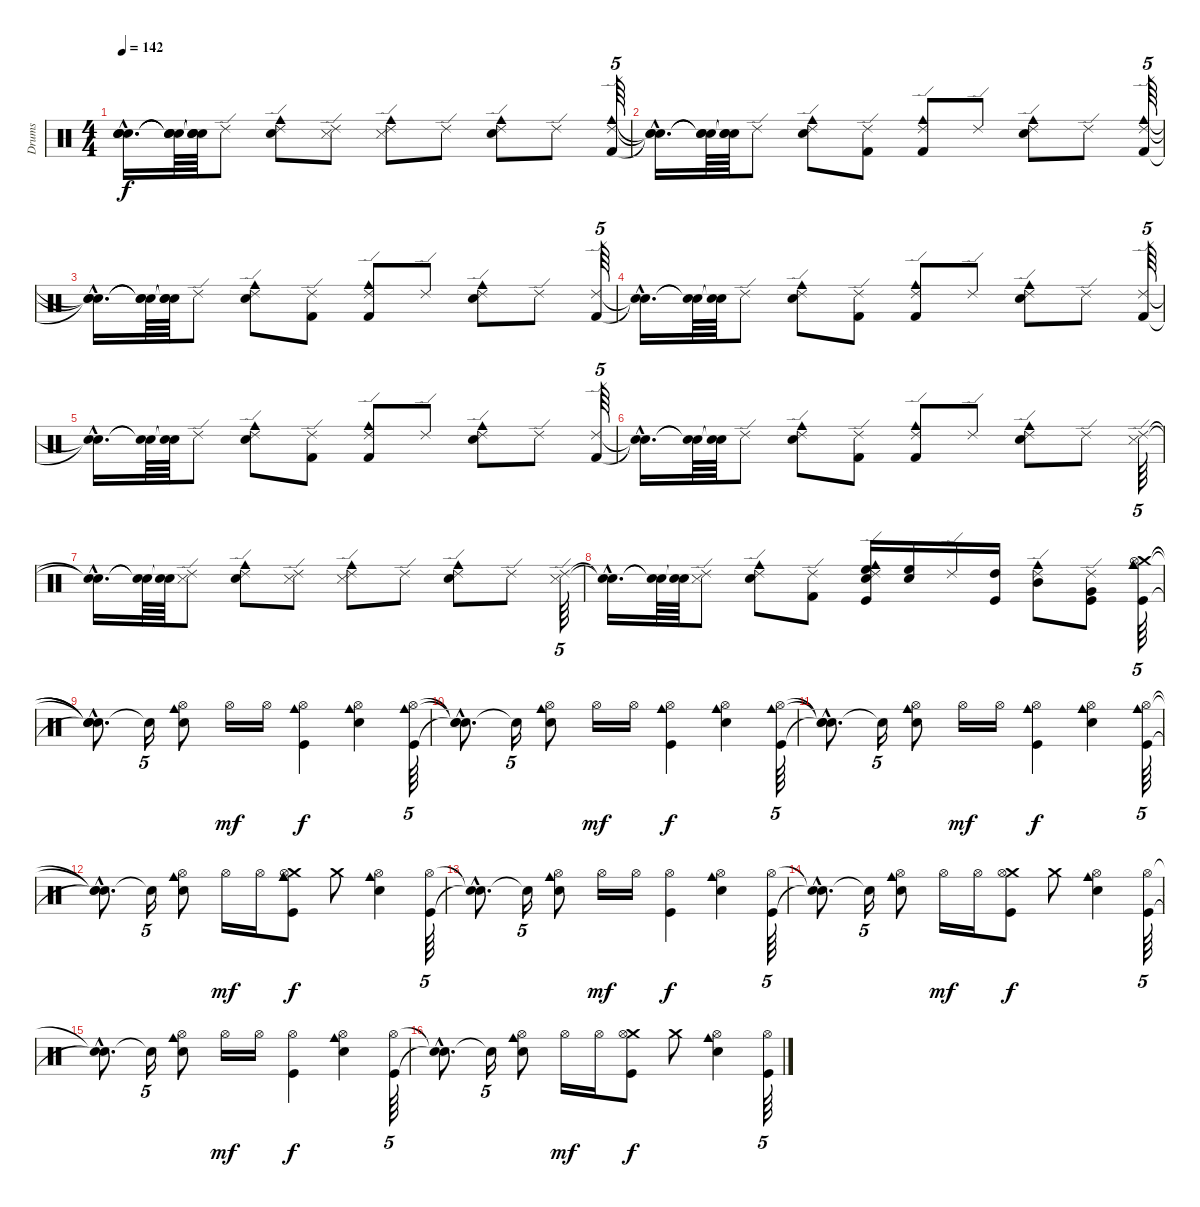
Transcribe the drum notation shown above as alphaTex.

\track ("Drums" "Drums") {instrument percussion}
\staff {score}
\articulation defaults
\ts (4 4)
\tempo 142
\clef neutral
\ks c
("Snare (hit)"{hac t} "Snare (hit)"{hac t} "Snare (hit)"{hac t} "Snare (hit)"{hac t}).16{d dy f} ("Snare (hit)"{t} "Snare (hit)"{t} "Snare (hit)"{t} "Snare (hit)"{t}).64 ("Snare (hit)"{t} "Snare (hit)"{t} "Snare (hit)"{t} "Snare (hit)"{t}).64 "Ride (edge) 2".8 ("Cowbell medium (hit)" "Ride (edge) 2" "Snare (hit) 2").8 ("Ride (edge) 2" "Metronome (hit)").8 ("Cowbell medium (hit)" "Ride (edge) 2" "Metronome (hit)").8 "Ride (edge) 2".8 ("Cowbell medium (hit)" "Ride (edge) 2" "Snare (hit) 2").8 "Ride (edge) 2".8 ("Cowbell medium (hit)" "Ride (edge) 2" "Kick (hit) 2").64{tu (5 4)} |
("Snare (hit)"{hac t} "Snare (hit)"{hac t} "Snare (hit)"{hac t}).16{d} ("Snare (hit)"{t} "Snare (hit)"{t} "Snare (hit)"{t}).64 ("Snare (hit)"{t} "Snare (hit)"{t} "Snare (hit)"{t}).64 "Ride (edge) 2".8 ("Cowbell medium (hit)" "Ride (edge) 2" "Snare (hit) 2").8 ("Ride (edge) 2" "Kick (hit) 2").8 ("Cowbell medium (hit)" "Ride (edge) 2" "Kick (hit) 2").8 "Ride (edge) 2".8 ("Cowbell medium (hit)" "Ride (edge) 2" "Snare (hit) 2").8 "Ride (edge) 2".8 ("Cowbell medium (hit)" "Ride (edge) 2" "Kick (hit) 2").64{tu (5 4)} |
("Snare (hit)"{hac t} "Snare (hit)"{hac t} "Snare (hit)"{hac t}).16{d} ("Snare (hit)"{t} "Snare (hit)"{t} "Snare (hit)"{t}).64 ("Snare (hit)"{t} "Snare (hit)"{t} "Snare (hit)"{t}).64 "Ride (edge) 2".8 ("Cowbell medium (hit)" "Ride (edge) 2" "Snare (hit) 2").8 ("Ride (edge) 2" "Kick (hit) 2").8 ("Cowbell medium (hit)" "Ride (edge) 2" "Kick (hit) 2").8 "Ride (edge) 2".8 ("Cowbell medium (hit)" "Ride (edge) 2" "Snare (hit) 2").8 "Ride (edge) 2".8 ("Ride (edge) 2" "Kick (hit) 2").64{tu (5 4)} |
("Snare (hit)"{hac t} "Snare (hit)"{hac t}).16{d} ("Snare (hit)"{t} "Snare (hit)"{t}).64 ("Snare (hit)"{t} "Snare (hit)"{t}).64 "Ride (edge) 2".8 ("Cowbell medium (hit)" "Ride (edge) 2" "Snare (hit) 2").8 ("Ride (edge) 2" "Kick (hit) 2").8 ("Cowbell medium (hit)" "Ride (edge) 2" "Kick (hit) 2").8 "Ride (edge) 2".8 ("Cowbell medium (hit)" "Ride (edge) 2" "Snare (hit) 2").8 "Ride (edge) 2".8 ("Ride (edge) 2" "Kick (hit) 2").64{tu (5 4)} |
("Snare (hit)"{hac t} "Snare (hit)"{hac t}).16{d} ("Snare (hit)"{t} "Snare (hit)"{t}).64 ("Snare (hit)"{t} "Snare (hit)"{t}).64 "Ride (edge) 2".8 ("Cowbell medium (hit)" "Ride (edge) 2" "Snare (hit) 2").8 ("Ride (edge) 2" "Kick (hit) 2").8 ("Cowbell medium (hit)" "Ride (edge) 2" "Kick (hit) 2").8 "Ride (edge) 2".8 ("Cowbell medium (hit)" "Ride (edge) 2" "Snare (hit) 2").8 "Ride (edge) 2".8 ("Ride (edge) 2" "Kick (hit) 2").64{tu (5 4)} |
("Snare (hit)"{hac t} "Snare (hit)"{hac t}).16{d} ("Snare (hit)"{t} "Snare (hit)"{t}).64 ("Snare (hit)"{t} "Snare (hit)"{t}).64 "Ride (edge) 2".8 ("Cowbell medium (hit)" "Ride (edge) 2" "Snare (hit) 2").8 ("Ride (edge) 2" "Kick (hit) 2").8 ("Cowbell medium (hit)" "Ride (edge) 2" "Kick (hit) 2").8 "Ride (edge) 2".8 ("Cowbell medium (hit)" "Ride (edge) 2" "Snare (hit) 2").8 "Ride (edge) 2".8 ("Metronome (hit)" "Ride (edge) 2").64{tu (5 4)} |
("Snare (hit)"{hac t} "Snare (hit)"{hac t}).16{d} ("Snare (hit)"{t} "Snare (hit)"{t}).64 ("Snare (hit)"{t} "Snare (hit)"{t}).64 ("Metronome (hit)" "Ride (edge) 2").8 ("Cowbell medium (hit)" "Ride (edge) 2" "Snare (hit) 2").8 ("Ride (edge) 2" "Metronome (hit)").8 ("Cowbell medium (hit)" "Ride (edge) 2" "Metronome (hit)").8 "Ride (edge) 2".8 ("Cowbell medium (hit)" "Ride (edge) 2" "Snare (hit) 2").8 "Ride (edge) 2".8 ("Metronome (hit)" "Ride (edge) 2").64{tu (5 4)} |
("Snare (hit)"{hac t} "Snare (hit)"{hac t}).16{d} ("Snare (hit)"{t} "Snare (hit)"{t}).64 ("Snare (hit)"{t} "Snare (hit)"{t}).64 ("Metronome (hit)" "Ride (edge) 2").8 ("Cowbell medium (hit)" "Ride (edge) 2" "Snare (hit) 2").8 ("Ride (edge) 2" "Kick (hit) 2").8 ("High Floor Tom (hit)" "Kick (hit)" "Snare (hit) 2" "Cowbell medium (hit)" "Ride (edge) 2").16 ("High Floor Tom (hit)" "Snare (hit) 2").16 "Ride (edge) 2".16 ("Kick (hit)" "High Tom (hit)").16 ("Mid Tom (hit)" "Cowbell medium (hit)" "Ride (edge) 2").8 ("Kick (hit)" "Very Low Tom (hit)" "Ride (edge) 2").8 ("Cowbell medium (hit)" "Crash medium (hit)" "Hi-Hat (open)" "Kick (hit)").64{tu (5 4)} |
("Snare (hit)"{hac t} "Snare (hit)"{hac t} "Snare (hit)"{hac t} "Snare (hit)"{hac t}).8{d} "Snare (hit)"{t}.16{tu (5 4)} ("Snare (hit) 2" "Hi-Hat (open)" "Cowbell medium (hit)").8 "Hi-Hat (open)".16{dy mf} "Hi-Hat (open)".16 ("Cowbell medium (hit)" "Kick (hit)" "Hi-Hat (open)").4{dy f} ("Snare (hit) 2" "Hi-Hat (open)" "Cowbell medium (hit)").4 ("Cowbell medium (hit)" "Hi-Hat (open)" "Kick (hit)").64{tu (5 4)} |
("Snare (hit)"{hac t} "Snare (hit)"{hac t} "Snare (hit)"{hac t}).8{d} "Snare (hit)"{t}.16{tu (5 4)} ("Snare (hit) 2" "Hi-Hat (open)" "Cowbell medium (hit)").8 "Hi-Hat (open)".16{dy mf} "Hi-Hat (open)".16 ("Cowbell medium (hit)" "Kick (hit)" "Hi-Hat (open)").4{dy f} ("Snare (hit) 2" "Hi-Hat (open)" "Cowbell medium (hit)").4 ("Hi-Hat (open)" "Kick (hit)" "Cowbell medium (hit)").64{tu (5 4)} |
("Snare (hit)"{hac t} "Snare (hit)"{hac t} "Snare (hit)"{hac t}).8{d} "Snare (hit)"{t}.16{tu (5 4)} ("Snare (hit) 2" "Hi-Hat (open)" "Cowbell medium (hit)").8 "Hi-Hat (open)".16{dy mf} "Hi-Hat (open)".16 ("Kick (hit)" "Hi-Hat (open)" "Cowbell medium (hit)").4{dy f} ("Snare (hit) 2" "Hi-Hat (open)" "Cowbell medium (hit)").4 ("Hi-Hat (open)" "Kick (hit)" "Cowbell medium (hit)").64{tu (5 4)} |
("Snare (hit)"{hac t} "Snare (hit)"{hac t} "Snare (hit)"{hac t}).8{d} "Snare (hit)"{t}.16{tu (5 4)} ("Snare (hit) 2" "Hi-Hat (open)" "Cowbell medium (hit)").8 "Hi-Hat (open)".16{dy mf} "Hi-Hat (open)".16 ("Crash medium (hit)" "Kick (hit)" "Hi-Hat (open)" "Cowbell medium (hit)").8{dy f} "Crash medium (hit)".8 ("Snare (hit) 2" "Hi-Hat (open)" "Cowbell medium (hit)").4 ("Hi-Hat (open)" "Kick (hit)").64{tu (5 4)} |
("Snare (hit)"{hac t} "Snare (hit)"{hac t}).8{d} "Snare (hit)"{t}.16{tu (5 4)} ("Snare (hit) 2" "Hi-Hat (open)" "Cowbell medium (hit)").8 "Hi-Hat (open)".16{dy mf} "Hi-Hat (open)".16 ("Kick (hit)" "Hi-Hat (open)").4{dy f} ("Snare (hit) 2" "Hi-Hat (open)" "Cowbell medium (hit)").4 ("Hi-Hat (open)" "Kick (hit)").64{tu (5 4)} |
("Snare (hit)"{hac t} "Snare (hit)"{hac t}).8{d} "Snare (hit)"{t}.16{tu (5 4)} ("Snare (hit) 2" "Hi-Hat (open)" "Cowbell medium (hit)").8 "Hi-Hat (open)".16{dy mf} "Hi-Hat (open)".16 ("Crash medium (hit)" "Kick (hit)" "Hi-Hat (open)").8{dy f} "Crash medium (hit)".8 ("Snare (hit) 2" "Hi-Hat (open)" "Cowbell medium (hit)").4 ("Hi-Hat (open)" "Kick (hit)").64{tu (5 4)} |
("Snare (hit)"{hac t} "Snare (hit)"{hac t}).8{d} "Snare (hit)"{t}.16{tu (5 4)} ("Snare (hit) 2" "Hi-Hat (open)" "Cowbell medium (hit)").8 "Hi-Hat (open)".16{dy mf} "Hi-Hat (open)".16 ("Kick (hit)" "Hi-Hat (open)").4{dy f} ("Snare (hit) 2" "Hi-Hat (open)" "Cowbell medium (hit)").4 ("Hi-Hat (open)" "Kick (hit)").64{tu (5 4)} |
("Snare (hit)"{hac t} "Snare (hit)"{hac t}).8{d} "Snare (hit)"{t}.16{tu (5 4)} ("Snare (hit) 2" "Hi-Hat (open)" "Cowbell medium (hit)").8 "Hi-Hat (open)".16{dy mf} "Hi-Hat (open)".16 ("Crash medium (hit)" "Kick (hit)" "Hi-Hat (open)").8{dy f} "Crash medium (hit)".8 ("Snare (hit) 2" "Hi-Hat (open)" "Cowbell medium (hit)").4 ("Hi-Hat (open)" "Kick (hit)").64{tu (5 4)}
